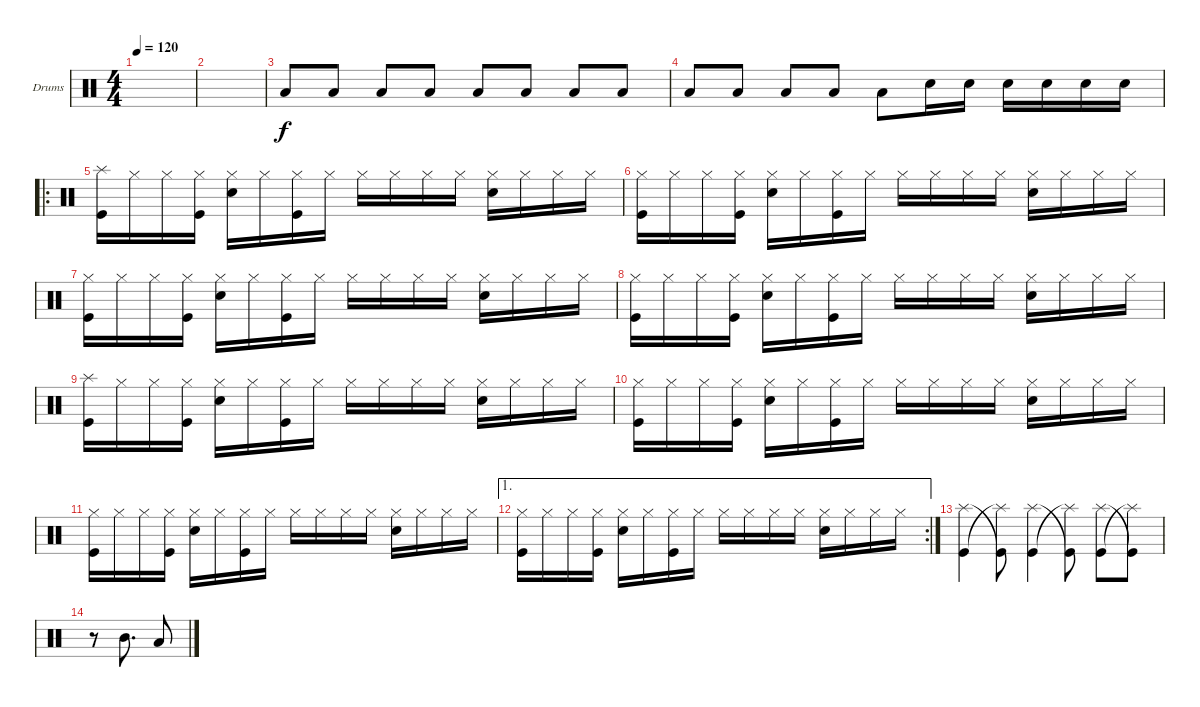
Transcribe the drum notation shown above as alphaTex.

\defaultSystemsLayout 4
\bracketExtendMode groupsimilarinstruments
\firstSystemTrackNameOrientation horizontal
\otherSystemsTrackNameOrientation horizontal
\track ("Drumkit" "Drums") {instrument percussion}
\staff {score}
\articulation defaults
\ts (4 4)
\tempo 120
\clef neutral
\ks c
|
|
"Low Tom (hit)".8 "Low Tom (hit)".8 "Low Tom (hit)".8 "Low Tom (hit)".8 "Low Tom (hit)".8 "Low Tom (hit)".8 "Low Tom (hit)".8 "Low Tom (hit)".8 |
"Low Tom (hit)".8 "Low Tom (hit)".8 "Low Tom (hit)".8 "Low Tom (hit)".8 "Low Tom (hit)".8 "Snare (hit) 2".16 "Snare (hit) 2".16 "Snare (hit) 2".16 "Snare (hit) 2".16 "Snare (hit) 2".16 "Snare (hit) 2".16 |
\ro
("Splash (hit)" "Kick (hit)").16 "Hi-Hat (closed)".16 "Hi-Hat (closed)".16 ("Hi-Hat (closed)" "Kick (hit)").16 ("Hi-Hat (closed)" "Snare (hit) 2").16 "Hi-Hat (closed)".16 ("Hi-Hat (closed)" "Kick (hit)").16 "Hi-Hat (closed)".16 "Hi-Hat (closed)".16 "Hi-Hat (closed)".16 "Hi-Hat (closed)".16 "Hi-Hat (closed)".16 ("Hi-Hat (closed)" "Snare (hit) 2").16 "Hi-Hat (closed)".16 "Hi-Hat (closed)".16 "Hi-Hat (closed)".16 |
("Kick (hit)" "Hi-Hat (closed)").16 "Hi-Hat (closed)".16 "Hi-Hat (closed)".16 ("Hi-Hat (closed)" "Kick (hit)").16 ("Hi-Hat (closed)" "Snare (hit) 2").16 "Hi-Hat (closed)".16 ("Hi-Hat (closed)" "Kick (hit)").16 "Hi-Hat (closed)".16 "Hi-Hat (closed)".16 "Hi-Hat (closed)".16 "Hi-Hat (closed)".16 "Hi-Hat (closed)".16 ("Hi-Hat (closed)" "Snare (hit) 2").16 "Hi-Hat (closed)".16 "Hi-Hat (closed)".16 "Hi-Hat (closed)".16 |
("Kick (hit)" "Hi-Hat (closed)").16 "Hi-Hat (closed)".16 "Hi-Hat (closed)".16 ("Hi-Hat (closed)" "Kick (hit)").16 ("Hi-Hat (closed)" "Snare (hit) 2").16 "Hi-Hat (closed)".16 ("Hi-Hat (closed)" "Kick (hit)").16 "Hi-Hat (closed)".16 "Hi-Hat (closed)".16 "Hi-Hat (closed)".16 "Hi-Hat (closed)".16 "Hi-Hat (closed)".16 ("Hi-Hat (closed)" "Snare (hit) 2").16 "Hi-Hat (closed)".16 "Hi-Hat (closed)".16 "Hi-Hat (closed)".16 |
("Kick (hit)" "Hi-Hat (closed)").16 "Hi-Hat (closed)".16 "Hi-Hat (closed)".16 ("Hi-Hat (closed)" "Kick (hit)").16 ("Hi-Hat (closed)" "Snare (hit) 2").16 "Hi-Hat (closed)".16 ("Hi-Hat (closed)" "Kick (hit)").16 "Hi-Hat (closed)".16 "Hi-Hat (closed)".16 "Hi-Hat (closed)".16 "Hi-Hat (closed)".16 "Hi-Hat (closed)".16 ("Hi-Hat (closed)" "Snare (hit) 2").16 "Hi-Hat (closed)".16 "Hi-Hat (closed)".16 "Hi-Hat (closed)".16 |
("Splash (hit)" "Kick (hit)").16 "Hi-Hat (closed)".16 "Hi-Hat (closed)".16 ("Hi-Hat (closed)" "Kick (hit)").16 ("Hi-Hat (closed)" "Snare (hit) 2").16 "Hi-Hat (closed)".16 ("Hi-Hat (closed)" "Kick (hit)").16 "Hi-Hat (closed)".16 "Hi-Hat (closed)".16 "Hi-Hat (closed)".16 "Hi-Hat (closed)".16 "Hi-Hat (closed)".16 ("Hi-Hat (closed)" "Snare (hit) 2").16 "Hi-Hat (closed)".16 "Hi-Hat (closed)".16 "Hi-Hat (closed)".16 |
("Kick (hit)" "Hi-Hat (closed)").16 "Hi-Hat (closed)".16 "Hi-Hat (closed)".16 ("Hi-Hat (closed)" "Kick (hit)").16 ("Hi-Hat (closed)" "Snare (hit) 2").16 "Hi-Hat (closed)".16 ("Hi-Hat (closed)" "Kick (hit)").16 "Hi-Hat (closed)".16 "Hi-Hat (closed)".16 "Hi-Hat (closed)".16 "Hi-Hat (closed)".16 "Hi-Hat (closed)".16 ("Hi-Hat (closed)" "Snare (hit) 2").16 "Hi-Hat (closed)".16 "Hi-Hat (closed)".16 "Hi-Hat (closed)".16 |
("Kick (hit)" "Hi-Hat (closed)").16 "Hi-Hat (closed)".16 "Hi-Hat (closed)".16 ("Hi-Hat (closed)" "Kick (hit)").16 ("Hi-Hat (closed)" "Snare (hit) 2").16 "Hi-Hat (closed)".16 ("Hi-Hat (closed)" "Kick (hit)").16 "Hi-Hat (closed)".16 "Hi-Hat (closed)".16 "Hi-Hat (closed)".16 "Hi-Hat (closed)".16 "Hi-Hat (closed)".16 ("Hi-Hat (closed)" "Snare (hit) 2").16 "Hi-Hat (closed)".16 "Hi-Hat (closed)".16 "Hi-Hat (closed)".16 |
\ae 1
\rc 2
("Kick (hit)" "Hi-Hat (closed)").16 "Hi-Hat (closed)".16 "Hi-Hat (closed)".16 ("Hi-Hat (closed)" "Kick (hit)").16 ("Hi-Hat (closed)" "Snare (hit) 2").16 "Hi-Hat (closed)".16 ("Hi-Hat (closed)" "Kick (hit)").16 "Hi-Hat (closed)".16 "Hi-Hat (closed)".16 "Hi-Hat (closed)".16 "Hi-Hat (closed)".16 "Hi-Hat (closed)".16 ("Hi-Hat (closed)" "Snare (hit) 2").16 "Hi-Hat (closed)".16 "Hi-Hat (closed)".16 "Hi-Hat (closed)".16 |
("Kick (hit)" "Splash (hit)").4 ("Splash (hit)"{t} "Kick (hit)"{t}).8 ("Kick (hit)" "Splash (hit)").4 ("Splash (hit)"{t} "Kick (hit)"{t}).8 ("Kick (hit)" "Splash (hit)").8 ("Splash (hit)"{t} "Kick (hit)"{t}).8 |
r.8 "Mid Tom (hit)".8{d} "Low Tom (hit)".8
